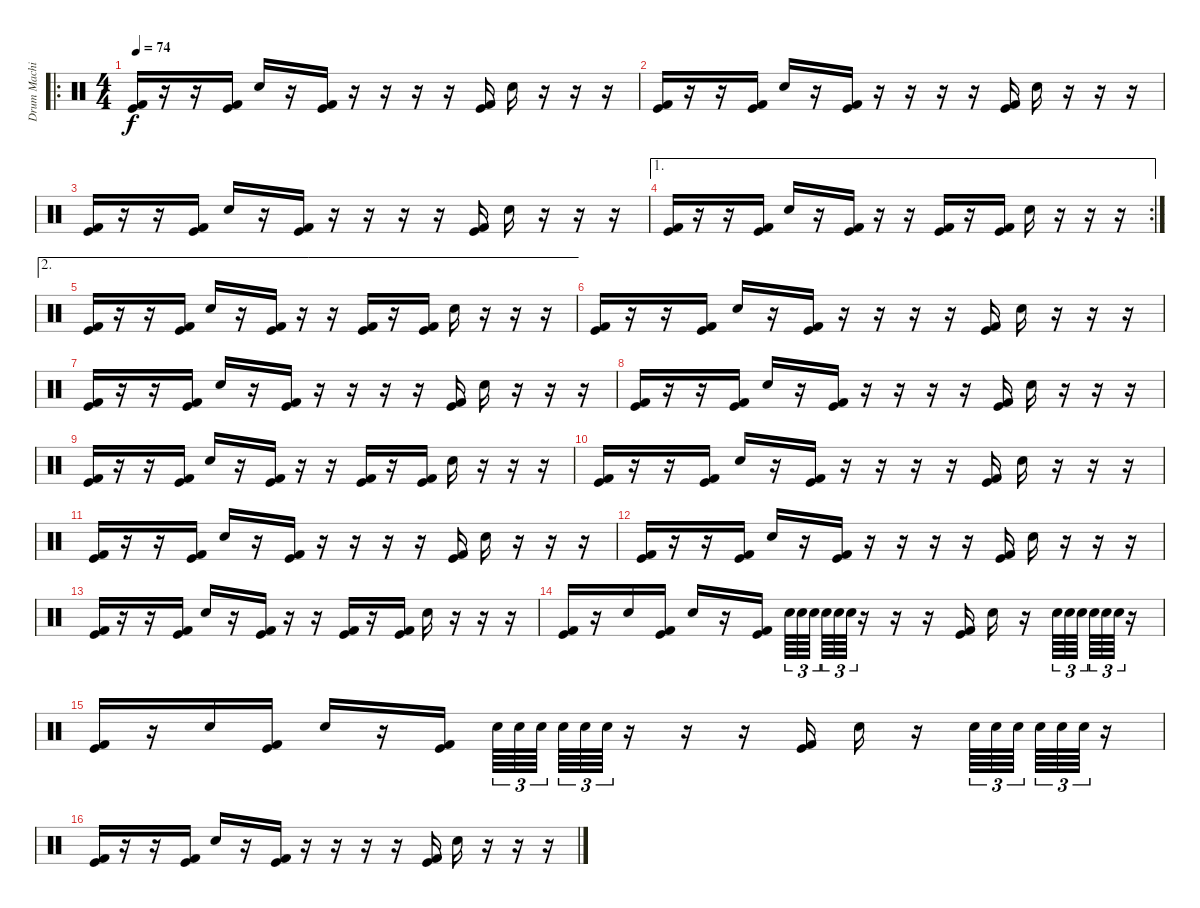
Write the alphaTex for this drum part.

\track ("Drum Machine" "Drum Machi") {instrument percussion}
\staff {score}
\articulation defaults
\ro
\ts (4 4)
\tempo 74
\clef neutral
\ks c
("Kick (hit) 2" "Kick (hit)").16{dy f} r.16 r.16 ("Kick (hit) 2" "Kick (hit)").16 "Snare (hit) 2".16 r.16 ("Kick (hit) 2" "Kick (hit)").16 r.16 r.16 r.16 r.16 ("Kick (hit) 2" "Kick (hit)").16 "Snare (hit) 2".16 r.16 r.16 r.16 |
("Kick (hit) 2" "Kick (hit)").16 r.16 r.16 ("Kick (hit) 2" "Kick (hit)").16 "Snare (hit) 2".16 r.16 ("Kick (hit) 2" "Kick (hit)").16 r.16 r.16 r.16 r.16 ("Kick (hit) 2" "Kick (hit)").16 "Snare (hit) 2".16 r.16 r.16 r.16 |
("Kick (hit) 2" "Kick (hit)").16 r.16 r.16 ("Kick (hit) 2" "Kick (hit)").16 "Snare (hit) 2".16 r.16 ("Kick (hit) 2" "Kick (hit)").16 r.16 r.16 r.16 r.16 ("Kick (hit) 2" "Kick (hit)").16 "Snare (hit) 2".16 r.16 r.16 r.16 |
\ae 1
\rc 2
("Kick (hit) 2" "Kick (hit)").16 r.16 r.16 ("Kick (hit) 2" "Kick (hit)").16 "Snare (hit) 2".16 r.16 ("Kick (hit) 2" "Kick (hit)").16 r.16 r.16 ("Kick (hit) 2" "Kick (hit)").16 r.16 ("Kick (hit) 2" "Kick (hit)").16 "Snare (hit) 2".16 r.16 r.16 r.16 |
\ae 2
("Kick (hit) 2" "Kick (hit)").16 r.16 r.16 ("Kick (hit) 2" "Kick (hit)").16 "Snare (hit) 2".16 r.16 ("Kick (hit) 2" "Kick (hit)").16 r.16 r.16 ("Kick (hit) 2" "Kick (hit)").16 r.16 ("Kick (hit) 2" "Kick (hit)").16 "Snare (hit) 2".16 r.16 r.16 r.16 |
("Kick (hit) 2" "Kick (hit)").16 r.16 r.16 ("Kick (hit) 2" "Kick (hit)").16 "Snare (hit) 2".16 r.16 ("Kick (hit) 2" "Kick (hit)").16 r.16 r.16 r.16 r.16 ("Kick (hit) 2" "Kick (hit)").16 "Snare (hit) 2".16 r.16 r.16 r.16 |
("Kick (hit) 2" "Kick (hit)").16 r.16 r.16 ("Kick (hit) 2" "Kick (hit)").16 "Snare (hit) 2".16 r.16 ("Kick (hit) 2" "Kick (hit)").16 r.16 r.16 r.16 r.16 ("Kick (hit) 2" "Kick (hit)").16 "Snare (hit) 2".16 r.16 r.16 r.16 |
("Kick (hit) 2" "Kick (hit)").16 r.16 r.16 ("Kick (hit) 2" "Kick (hit)").16 "Snare (hit) 2".16 r.16 ("Kick (hit) 2" "Kick (hit)").16 r.16 r.16 r.16 r.16 ("Kick (hit) 2" "Kick (hit)").16 "Snare (hit) 2".16 r.16 r.16 r.16 |
("Kick (hit) 2" "Kick (hit)").16 r.16 r.16 ("Kick (hit) 2" "Kick (hit)").16 "Snare (hit) 2".16 r.16 ("Kick (hit) 2" "Kick (hit)").16 r.16 r.16 ("Kick (hit) 2" "Kick (hit)").16 r.16 ("Kick (hit) 2" "Kick (hit)").16 "Snare (hit) 2".16 r.16 r.16 r.16 |
("Kick (hit) 2" "Kick (hit)").16 r.16 r.16 ("Kick (hit) 2" "Kick (hit)").16 "Snare (hit) 2".16 r.16 ("Kick (hit) 2" "Kick (hit)").16 r.16 r.16 r.16 r.16 ("Kick (hit) 2" "Kick (hit)").16 "Snare (hit) 2".16 r.16 r.16 r.16 |
("Kick (hit) 2" "Kick (hit)").16 r.16 r.16 ("Kick (hit) 2" "Kick (hit)").16 "Snare (hit) 2".16 r.16 ("Kick (hit) 2" "Kick (hit)").16 r.16 r.16 r.16 r.16 ("Kick (hit) 2" "Kick (hit)").16 "Snare (hit) 2".16 r.16 r.16 r.16 |
("Kick (hit) 2" "Kick (hit)").16 r.16 r.16 ("Kick (hit) 2" "Kick (hit)").16 "Snare (hit) 2".16 r.16 ("Kick (hit) 2" "Kick (hit)").16 r.16 r.16 r.16 r.16 ("Kick (hit) 2" "Kick (hit)").16 "Snare (hit) 2".16 r.16 r.16 r.16 |
("Kick (hit) 2" "Kick (hit)").16 r.16 r.16 ("Kick (hit) 2" "Kick (hit)").16 "Snare (hit) 2".16 r.16 ("Kick (hit) 2" "Kick (hit)").16 r.16 r.16 ("Kick (hit) 2" "Kick (hit)").16 r.16 ("Kick (hit) 2" "Kick (hit)").16 "Snare (hit) 2".16 r.16 r.16 r.16 |
("Kick (hit) 2" "Kick (hit)").16 r.16 "Snare (hit) 2".16 ("Kick (hit) 2" "Kick (hit)").16 "Snare (hit) 2".16 r.16 ("Kick (hit) 2" "Kick (hit)").16 "Snare (hit) 2".64{tu (3 2)} "Snare (hit) 2".64{tu (3 2)} "Snare (hit) 2".64{tu (3 2)} "Snare (hit) 2".64{tu (3 2)} "Snare (hit) 2".64{tu (3 2)} "Snare (hit) 2".64{tu (3 2)} r.16 r.16 r.16 ("Kick (hit) 2" "Kick (hit)").16 "Snare (hit) 2".16 r.16 "Snare (hit) 2".64{tu (3 2)} "Snare (hit) 2".64{tu (3 2)} "Snare (hit) 2".64{tu (3 2)} "Snare (hit) 2".64{tu (3 2)} "Snare (hit) 2".64{tu (3 2)} "Snare (hit) 2".64{tu (3 2)} r.16 |
("Kick (hit) 2" "Kick (hit)").16 r.16 "Snare (hit) 2".16 ("Kick (hit) 2" "Kick (hit)").16 "Snare (hit) 2".16 r.16 ("Kick (hit) 2" "Kick (hit)").16 "Snare (hit) 2".64{tu (3 2)} "Snare (hit) 2".64{tu (3 2)} "Snare (hit) 2".64{tu (3 2)} "Snare (hit) 2".64{tu (3 2)} "Snare (hit) 2".64{tu (3 2)} "Snare (hit) 2".64{tu (3 2)} r.16 r.16 r.16 ("Kick (hit) 2" "Kick (hit)").16 "Snare (hit) 2".16 r.16 "Snare (hit) 2".64{tu (3 2)} "Snare (hit) 2".64{tu (3 2)} "Snare (hit) 2".64{tu (3 2)} "Snare (hit) 2".64{tu (3 2)} "Snare (hit) 2".64{tu (3 2)} "Snare (hit) 2".64{tu (3 2)} r.16 |
("Kick (hit) 2" "Kick (hit)").16 r.16 r.16 ("Kick (hit) 2" "Kick (hit)").16 "Snare (hit) 2".16 r.16 ("Kick (hit) 2" "Kick (hit)").16 r.16 r.16 r.16 r.16 ("Kick (hit) 2" "Kick (hit)").16 "Snare (hit) 2".16 r.16 r.16 r.16
